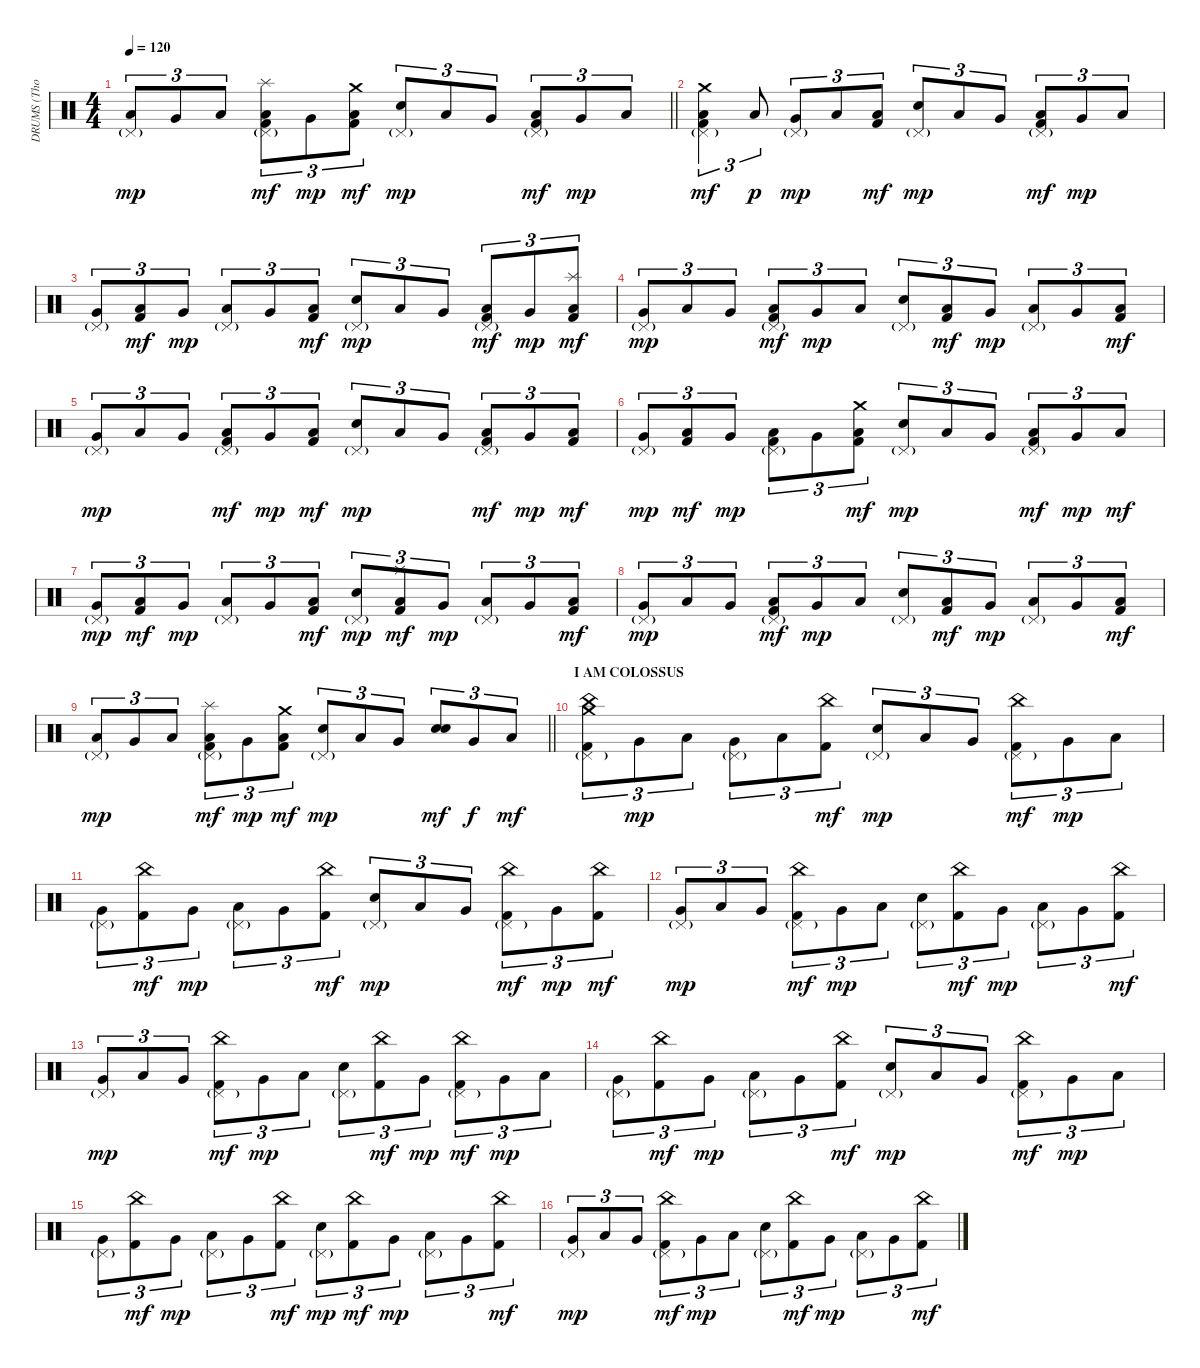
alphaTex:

\track ("DRUMS (Thomas Haake)" "DRUMS (Tho") {instrument percussion}
\staff {score}
\articulation defaults
\ts (4 4)
\tempo 120
\clef neutral
\barLineRight lightlight
\ks c
("Pedal Hi-Hat (hit)"{g} "Low Floor Tom (hit)").8{tu (3 2) dy mp} "Very Low Tom (hit)".8{tu (3 2)} "Low Floor Tom (hit)".8{tu (3 2)} ("Pedal Hi-Hat (hit)"{g} "Splash (hit)" "Low Floor Tom (hit)" "Kick (hit) 2").8{tu (3 2) dy mf} "Very Low Tom (hit)".8{tu (3 2) dy mp} ("Crash medium (hit)" "Low Floor Tom (hit)" "Kick (hit) 2").8{tu (3 2) dy mf} ("Pedal Hi-Hat (hit)"{g} "Electric Snare (hit)").8{tu (3 2) dy mp} "Low Floor Tom (hit)".8{tu (3 2)} "Very Low Tom (hit)".8{tu (3 2)} ("Pedal Hi-Hat (hit)"{g} "Low Floor Tom (hit)" "Kick (hit) 2").8{tu (3 2) dy mf} "Very Low Tom (hit)".8{tu (3 2) dy mp} "Low Floor Tom (hit)".8{tu (3 2)} |
("Pedal Hi-Hat (hit)"{g} "Crash medium (hit)" "Low Floor Tom (hit)" "Kick (hit) 2").4{tu (3 2) dy mf} "Low Floor Tom (hit)".8{tu (3 2) dy p} ("Pedal Hi-Hat (hit)"{g} "Very Low Tom (hit)").8{tu (3 2) dy mp} "Low Floor Tom (hit)".8{tu (3 2)} ("Low Floor Tom (hit)" "Kick (hit) 2").8{tu (3 2) dy mf} ("Pedal Hi-Hat (hit)"{g} "Electric Snare (hit)").8{tu (3 2) dy mp} "Low Floor Tom (hit)".8{tu (3 2)} "Very Low Tom (hit)".8{tu (3 2)} ("Pedal Hi-Hat (hit)"{g} "Low Floor Tom (hit)" "Kick (hit) 2").8{tu (3 2) dy mf} "Very Low Tom (hit)".8{tu (3 2) dy mp} "Low Floor Tom (hit)".8{tu (3 2)} |
("Pedal Hi-Hat (hit)"{g} "Very Low Tom (hit)").8{tu (3 2)} ("Low Floor Tom (hit)" "Kick (hit) 2").8{tu (3 2) dy mf} "Very Low Tom (hit)".8{tu (3 2) dy mp} ("Pedal Hi-Hat (hit)"{g} "Low Floor Tom (hit)").8{tu (3 2)} "Very Low Tom (hit)".8{tu (3 2)} ("Low Floor Tom (hit)" "Kick (hit) 2").8{tu (3 2) dy mf} ("Pedal Hi-Hat (hit)"{g} "Electric Snare (hit)").8{tu (3 2) dy mp} "Low Floor Tom (hit)".8{tu (3 2)} "Very Low Tom (hit)".8{tu (3 2)} ("Pedal Hi-Hat (hit)"{g} "Low Floor Tom (hit)" "Kick (hit) 2").8{tu (3 2) dy mf} "Very Low Tom (hit)".8{tu (3 2) dy mp} ("Splash (hit)" "Low Floor Tom (hit)" "Kick (hit) 2").8{tu (3 2) dy mf} |
("Pedal Hi-Hat (hit)"{g} "Very Low Tom (hit)").8{tu (3 2) dy mp} "Low Floor Tom (hit)".8{tu (3 2)} "Very Low Tom (hit)".8{tu (3 2)} ("Pedal Hi-Hat (hit)"{g} "Low Floor Tom (hit)" "Kick (hit) 2").8{tu (3 2) dy mf} "Very Low Tom (hit)".8{tu (3 2) dy mp} "Low Floor Tom (hit)".8{tu (3 2)} ("Pedal Hi-Hat (hit)"{g} "Electric Snare (hit)").8{tu (3 2)} ("Low Floor Tom (hit)" "Kick (hit) 2").8{tu (3 2) dy mf} "Very Low Tom (hit)".8{tu (3 2) dy mp} ("Pedal Hi-Hat (hit)"{g} "Low Floor Tom (hit)").8{tu (3 2)} "Very Low Tom (hit)".8{tu (3 2)} ("Low Floor Tom (hit)" "Kick (hit) 2").8{tu (3 2) dy mf} |
("Pedal Hi-Hat (hit)"{g} "Very Low Tom (hit)").8{tu (3 2) dy mp} "Low Floor Tom (hit)".8{tu (3 2)} "Very Low Tom (hit)".8{tu (3 2)} ("Pedal Hi-Hat (hit)"{g} "Low Floor Tom (hit)" "Kick (hit) 2").8{tu (3 2) dy mf} "Very Low Tom (hit)".8{tu (3 2) dy mp} ("Low Floor Tom (hit)" "Kick (hit) 2").8{tu (3 2) dy mf} ("Pedal Hi-Hat (hit)"{g} "Electric Snare (hit)").8{tu (3 2) dy mp} "Low Floor Tom (hit)".8{tu (3 2)} "Very Low Tom (hit)".8{tu (3 2)} ("Pedal Hi-Hat (hit)"{g} "Low Floor Tom (hit)" "Kick (hit) 2").8{tu (3 2) dy mf} "Very Low Tom (hit)".8{tu (3 2) dy mp} ("Low Floor Tom (hit)" "Kick (hit) 2").8{tu (3 2) dy mf} |
("Pedal Hi-Hat (hit)"{g} "Very Low Tom (hit)").8{tu (3 2) dy mp} ("Low Floor Tom (hit)" "Kick (hit) 2").8{tu (3 2) dy mf} "Very Low Tom (hit)".8{tu (3 2) dy mp} ("Pedal Hi-Hat (hit)"{g} "Low Floor Tom (hit)" "Kick (hit) 2").8{tu (3 2)} "Very Low Tom (hit)".8{tu (3 2)} ("Crash medium (hit)" "Low Floor Tom (hit)" "Kick (hit) 2").8{tu (3 2) dy mf} ("Pedal Hi-Hat (hit)"{g} "Electric Snare (hit)").8{tu (3 2) dy mp} "Low Floor Tom (hit)".8{tu (3 2)} "Very Low Tom (hit)".8{tu (3 2)} ("Pedal Hi-Hat (hit)"{g} "Low Floor Tom (hit)" "Kick (hit) 2").8{tu (3 2) dy mf} "Very Low Tom (hit)".8{tu (3 2) dy mp} "Low Floor Tom (hit)".8{tu (3 2) dy mf} |
("Pedal Hi-Hat (hit)"{g} "Very Low Tom (hit)").8{tu (3 2) dy mp} ("Low Floor Tom (hit)" "Kick (hit) 2").8{tu (3 2) dy mf} "Very Low Tom (hit)".8{tu (3 2) dy mp} ("Pedal Hi-Hat (hit)"{g} "Low Floor Tom (hit)").8{tu (3 2)} "Very Low Tom (hit)".8{tu (3 2)} ("Low Floor Tom (hit)" "Kick (hit) 2").8{tu (3 2) dy mf} ("Pedal Hi-Hat (hit)"{g} "Electric Snare (hit)").8{tu (3 2) dy mp} ("Splash (hit)" "Low Floor Tom (hit)" "Kick (hit) 2").8{tu (3 2) dy mf} "Very Low Tom (hit)".8{tu (3 2) dy mp} ("Pedal Hi-Hat (hit)"{g} "Low Floor Tom (hit)").8{tu (3 2)} "Very Low Tom (hit)".8{tu (3 2)} ("Low Floor Tom (hit)" "Kick (hit) 2").8{tu (3 2) dy mf} |
("Pedal Hi-Hat (hit)"{g} "Very Low Tom (hit)").8{tu (3 2) dy mp} "Low Floor Tom (hit)".8{tu (3 2)} "Very Low Tom (hit)".8{tu (3 2)} ("Pedal Hi-Hat (hit)"{g} "Low Floor Tom (hit)" "Kick (hit) 2").8{tu (3 2) dy mf} "Very Low Tom (hit)".8{tu (3 2) dy mp} "Low Floor Tom (hit)".8{tu (3 2)} ("Pedal Hi-Hat (hit)"{g} "Electric Snare (hit)").8{tu (3 2)} ("Low Floor Tom (hit)" "Kick (hit) 2").8{tu (3 2) dy mf} "Very Low Tom (hit)".8{tu (3 2) dy mp} ("Pedal Hi-Hat (hit)"{g} "Low Floor Tom (hit)").8{tu (3 2)} "Very Low Tom (hit)".8{tu (3 2)} ("Low Floor Tom (hit)" "Kick (hit) 2").8{tu (3 2) dy mf} |
\barLineRight lightlight
("Pedal Hi-Hat (hit)"{g} "Low Floor Tom (hit)").8{tu (3 2) dy mp} "Very Low Tom (hit)".8{tu (3 2)} "Low Floor Tom (hit)".8{tu (3 2)} ("Pedal Hi-Hat (hit)"{g} "Splash (hit)" "Low Floor Tom (hit)" "Kick (hit) 2").8{tu (3 2) dy mf} "Very Low Tom (hit)".8{tu (3 2) dy mp} ("Crash medium (hit)" "Low Floor Tom (hit)" "Kick (hit) 2").8{tu (3 2) dy mf} ("Pedal Hi-Hat (hit)"{g} "Electric Snare (hit)").8{tu (3 2) dy mp} "Low Floor Tom (hit)".8{tu (3 2)} "Very Low Tom (hit)".8{tu (3 2)} ("Electric Snare (hit)" "Electric Snare (hit)").8{tu (3 2) bd 120 dy mf} "Very Low Tom (hit)".8{tu (3 2) dy f} "Low Floor Tom (hit)".8{tu (3 2) dy mf} |
\section ("" "I AM COLOSSUS")
("Pedal Hi-Hat (hit)"{g} "Crash medium (hit)" "China (hit)" "Kick (hit) 2").8{tu (3 2)} "Very Low Tom (hit)".8{tu (3 2) dy mp} "Low Floor Tom (hit)".8{tu (3 2)} ("Pedal Hi-Hat (hit)"{g} "Very Low Tom (hit)").8{tu (3 2)} "Low Floor Tom (hit)".8{tu (3 2)} ("China (hit)" "Kick (hit) 2").8{tu (3 2) dy mf} ("Pedal Hi-Hat (hit)"{g} "Electric Snare (hit)").8{tu (3 2) dy mp} "Low Floor Tom (hit)".8{tu (3 2)} "Very Low Tom (hit)".8{tu (3 2)} ("Pedal Hi-Hat (hit)"{g} "China (hit)" "Kick (hit) 2").8{tu (3 2) dy mf} "Very Low Tom (hit)".8{tu (3 2) dy mp} "Low Floor Tom (hit)".8{tu (3 2)} |
("Pedal Hi-Hat (hit)"{g} "Very Low Tom (hit)").8{tu (3 2)} ("China (hit)" "Kick (hit) 2").8{tu (3 2) dy mf} "Very Low Tom (hit)".8{tu (3 2) dy mp} ("Pedal Hi-Hat (hit)"{g} "Low Floor Tom (hit)").8{tu (3 2)} "Very Low Tom (hit)".8{tu (3 2)} ("China (hit)" "Kick (hit) 2").8{tu (3 2) dy mf} ("Pedal Hi-Hat (hit)"{g} "Electric Snare (hit)").8{tu (3 2) dy mp} "Low Floor Tom (hit)".8{tu (3 2)} "Very Low Tom (hit)".8{tu (3 2)} ("Pedal Hi-Hat (hit)"{g} "China (hit)" "Kick (hit) 2").8{tu (3 2) dy mf} "Very Low Tom (hit)".8{tu (3 2) dy mp} ("China (hit)" "Kick (hit) 2").8{tu (3 2) dy mf} |
("Pedal Hi-Hat (hit)"{g} "Very Low Tom (hit)").8{tu (3 2) dy mp} "Low Floor Tom (hit)".8{tu (3 2)} "Very Low Tom (hit)".8{tu (3 2)} ("Pedal Hi-Hat (hit)"{g} "China (hit)" "Kick (hit) 2").8{tu (3 2) dy mf} "Very Low Tom (hit)".8{tu (3 2) dy mp} "Low Floor Tom (hit)".8{tu (3 2)} ("Pedal Hi-Hat (hit)"{g} "Electric Snare (hit)").8{tu (3 2)} ("China (hit)" "Kick (hit) 2").8{tu (3 2) dy mf} "Very Low Tom (hit)".8{tu (3 2) dy mp} ("Pedal Hi-Hat (hit)"{g} "Low Floor Tom (hit)").8{tu (3 2)} "Very Low Tom (hit)".8{tu (3 2)} ("China (hit)" "Kick (hit) 2").8{tu (3 2) dy mf} |
("Pedal Hi-Hat (hit)"{g} "Very Low Tom (hit)").8{tu (3 2) dy mp} "Low Floor Tom (hit)".8{tu (3 2)} "Very Low Tom (hit)".8{tu (3 2)} ("Pedal Hi-Hat (hit)"{g} "China (hit)" "Kick (hit) 2").8{tu (3 2) dy mf} "Very Low Tom (hit)".8{tu (3 2) dy mp} "Low Floor Tom (hit)".8{tu (3 2)} ("Pedal Hi-Hat (hit)"{g} "Electric Snare (hit)").8{tu (3 2)} ("China (hit)" "Kick (hit) 2").8{tu (3 2) dy mf} "Very Low Tom (hit)".8{tu (3 2) dy mp} ("Pedal Hi-Hat (hit)"{g} "China (hit)" "Kick (hit) 2").8{tu (3 2) dy mf} "Very Low Tom (hit)".8{tu (3 2) dy mp} "Low Floor Tom (hit)".8{tu (3 2)} |
("Pedal Hi-Hat (hit)"{g} "Very Low Tom (hit)").8{tu (3 2)} ("China (hit)" "Kick (hit) 2").8{tu (3 2) dy mf} "Very Low Tom (hit)".8{tu (3 2) dy mp} ("Pedal Hi-Hat (hit)"{g} "Low Floor Tom (hit)").8{tu (3 2)} "Very Low Tom (hit)".8{tu (3 2)} ("China (hit)" "Kick (hit) 2").8{tu (3 2) dy mf} ("Pedal Hi-Hat (hit)"{g} "Electric Snare (hit)").8{tu (3 2) dy mp} "Low Floor Tom (hit)".8{tu (3 2)} "Very Low Tom (hit)".8{tu (3 2)} ("Pedal Hi-Hat (hit)"{g} "China (hit)" "Kick (hit) 2").8{tu (3 2) dy mf} "Very Low Tom (hit)".8{tu (3 2) dy mp} "Low Floor Tom (hit)".8{tu (3 2)} |
("Pedal Hi-Hat (hit)"{g} "Very Low Tom (hit)").8{tu (3 2)} ("China (hit)" "Kick (hit) 2").8{tu (3 2) dy mf} "Very Low Tom (hit)".8{tu (3 2) dy mp} ("Pedal Hi-Hat (hit)"{g} "Low Floor Tom (hit)").8{tu (3 2)} "Very Low Tom (hit)".8{tu (3 2)} ("China (hit)" "Kick (hit) 2").8{tu (3 2) dy mf} ("Pedal Hi-Hat (hit)"{g} "Electric Snare (hit)").8{tu (3 2) dy mp} ("China (hit)" "Kick (hit) 2").8{tu (3 2) dy mf} "Very Low Tom (hit)".8{tu (3 2) dy mp} ("Pedal Hi-Hat (hit)"{g} "Low Floor Tom (hit)").8{tu (3 2)} "Very Low Tom (hit)".8{tu (3 2)} ("China (hit)" "Kick (hit) 2").8{tu (3 2) dy mf} |
("Pedal Hi-Hat (hit)"{g} "Very Low Tom (hit)").8{tu (3 2) dy mp} "Low Floor Tom (hit)".8{tu (3 2)} "Very Low Tom (hit)".8{tu (3 2)} ("Pedal Hi-Hat (hit)"{g} "China (hit)" "Kick (hit) 2").8{tu (3 2) dy mf} "Very Low Tom (hit)".8{tu (3 2) dy mp} "Low Floor Tom (hit)".8{tu (3 2)} ("Pedal Hi-Hat (hit)"{g} "Electric Snare (hit)").8{tu (3 2)} ("China (hit)" "Kick (hit) 2").8{tu (3 2) dy mf} "Very Low Tom (hit)".8{tu (3 2) dy mp} ("Pedal Hi-Hat (hit)"{g} "Low Floor Tom (hit)").8{tu (3 2)} "Very Low Tom (hit)".8{tu (3 2)} ("China (hit)" "Kick (hit) 2").8{tu (3 2) dy mf}
